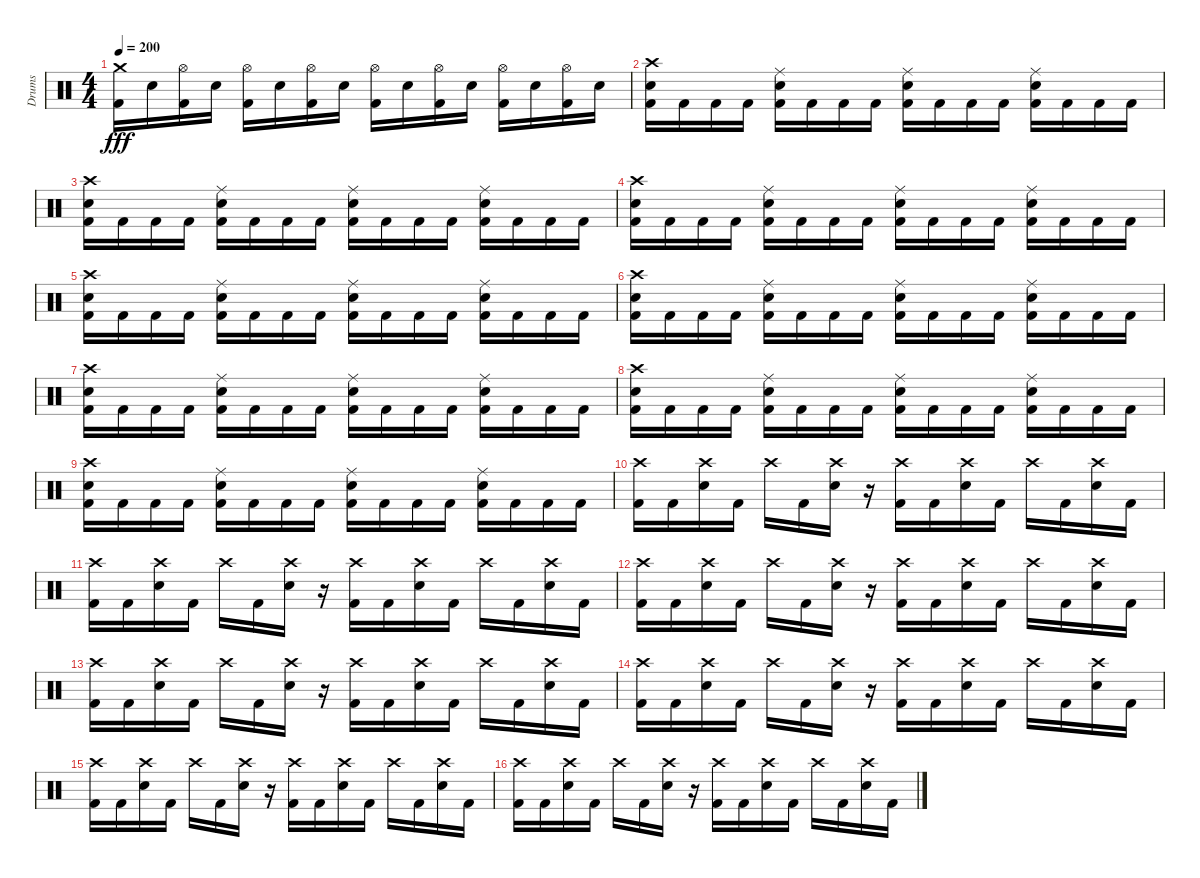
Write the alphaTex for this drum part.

\track ("Drums" "Drums") {instrument percussion}
\staff {score}
\articulation defaults
\ts (4 4)
\tempo 200
\clef neutral
\ks c
("Crash medium (hit)" "Kick (hit) 2").16{dy fff} "Electric Snare (hit)".16 ("Hi-Hat (open)" "Kick (hit) 2").16 "Electric Snare (hit)".16 ("Hi-Hat (open)" "Kick (hit) 2").16 "Electric Snare (hit)".16 ("Hi-Hat (open)" "Kick (hit) 2").16 "Electric Snare (hit)".16 ("Hi-Hat (open)" "Kick (hit) 2").16 "Electric Snare (hit)".16 ("Hi-Hat (open)" "Kick (hit) 2").16 "Electric Snare (hit)".16 ("Hi-Hat (open)" "Kick (hit) 2").16 "Electric Snare (hit)".16 ("Hi-Hat (open)" "Kick (hit) 2").16 "Electric Snare (hit)".16 |
("Crash high (hit)" "Electric Snare (hit)" "Kick (hit) 2").16 "Kick (hit) 2".16 "Kick (hit) 2".16 "Kick (hit) 2".16 ("Ride (middle)" "Electric Snare (hit)" "Kick (hit) 2").16 "Kick (hit) 2".16 "Kick (hit) 2".16 "Kick (hit) 2".16 ("Ride (middle)" "Electric Snare (hit)" "Kick (hit) 2").16 "Kick (hit) 2".16 "Kick (hit) 2".16 "Kick (hit) 2".16 ("Ride (middle)" "Electric Snare (hit)" "Kick (hit) 2").16 "Kick (hit) 2".16 "Kick (hit) 2".16 "Kick (hit) 2".16 |
("Crash high (hit)" "Electric Snare (hit)" "Kick (hit) 2").16 "Kick (hit) 2".16 "Kick (hit) 2".16 "Kick (hit) 2".16 ("Ride (middle)" "Electric Snare (hit)" "Kick (hit) 2").16 "Kick (hit) 2".16 "Kick (hit) 2".16 "Kick (hit) 2".16 ("Ride (middle)" "Electric Snare (hit)" "Kick (hit) 2").16 "Kick (hit) 2".16 "Kick (hit) 2".16 "Kick (hit) 2".16 ("Ride (middle)" "Electric Snare (hit)" "Kick (hit) 2").16 "Kick (hit) 2".16 "Kick (hit) 2".16 "Kick (hit) 2".16 |
("Crash high (hit)" "Electric Snare (hit)" "Kick (hit) 2").16 "Kick (hit) 2".16 "Kick (hit) 2".16 "Kick (hit) 2".16 ("Ride (middle)" "Electric Snare (hit)" "Kick (hit) 2").16 "Kick (hit) 2".16 "Kick (hit) 2".16 "Kick (hit) 2".16 ("Ride (middle)" "Electric Snare (hit)" "Kick (hit) 2").16 "Kick (hit) 2".16 "Kick (hit) 2".16 "Kick (hit) 2".16 ("Ride (middle)" "Electric Snare (hit)" "Kick (hit) 2").16 "Kick (hit) 2".16 "Kick (hit) 2".16 "Kick (hit) 2".16 |
("Crash high (hit)" "Electric Snare (hit)" "Kick (hit) 2").16 "Kick (hit) 2".16 "Kick (hit) 2".16 "Kick (hit) 2".16 ("Ride (middle)" "Electric Snare (hit)" "Kick (hit) 2").16 "Kick (hit) 2".16 "Kick (hit) 2".16 "Kick (hit) 2".16 ("Ride (middle)" "Electric Snare (hit)" "Kick (hit) 2").16 "Kick (hit) 2".16 "Kick (hit) 2".16 "Kick (hit) 2".16 ("Ride (middle)" "Electric Snare (hit)" "Kick (hit) 2").16 "Kick (hit) 2".16 "Kick (hit) 2".16 "Kick (hit) 2".16 |
("Crash high (hit)" "Electric Snare (hit)" "Kick (hit) 2").16 "Kick (hit) 2".16 "Kick (hit) 2".16 "Kick (hit) 2".16 ("Ride (middle)" "Electric Snare (hit)" "Kick (hit) 2").16 "Kick (hit) 2".16 "Kick (hit) 2".16 "Kick (hit) 2".16 ("Ride (middle)" "Electric Snare (hit)" "Kick (hit) 2").16 "Kick (hit) 2".16 "Kick (hit) 2".16 "Kick (hit) 2".16 ("Ride (middle)" "Electric Snare (hit)" "Kick (hit) 2").16 "Kick (hit) 2".16 "Kick (hit) 2".16 "Kick (hit) 2".16 |
("Crash high (hit)" "Electric Snare (hit)" "Kick (hit) 2").16 "Kick (hit) 2".16 "Kick (hit) 2".16 "Kick (hit) 2".16 ("Ride (middle)" "Electric Snare (hit)" "Kick (hit) 2").16 "Kick (hit) 2".16 "Kick (hit) 2".16 "Kick (hit) 2".16 ("Ride (middle)" "Electric Snare (hit)" "Kick (hit) 2").16 "Kick (hit) 2".16 "Kick (hit) 2".16 "Kick (hit) 2".16 ("Ride (middle)" "Electric Snare (hit)" "Kick (hit) 2").16 "Kick (hit) 2".16 "Kick (hit) 2".16 "Kick (hit) 2".16 |
("Crash high (hit)" "Electric Snare (hit)" "Kick (hit) 2").16 "Kick (hit) 2".16 "Kick (hit) 2".16 "Kick (hit) 2".16 ("Ride (middle)" "Electric Snare (hit)" "Kick (hit) 2").16 "Kick (hit) 2".16 "Kick (hit) 2".16 "Kick (hit) 2".16 ("Ride (middle)" "Electric Snare (hit)" "Kick (hit) 2").16 "Kick (hit) 2".16 "Kick (hit) 2".16 "Kick (hit) 2".16 ("Ride (middle)" "Electric Snare (hit)" "Kick (hit) 2").16 "Kick (hit) 2".16 "Kick (hit) 2".16 "Kick (hit) 2".16 |
("Crash high (hit)" "Electric Snare (hit)" "Kick (hit) 2").16 "Kick (hit) 2".16 "Kick (hit) 2".16 "Kick (hit) 2".16 ("Ride (middle)" "Electric Snare (hit)" "Kick (hit) 2").16 "Kick (hit) 2".16 "Kick (hit) 2".16 "Kick (hit) 2".16 ("Ride (middle)" "Electric Snare (hit)" "Kick (hit) 2").16 "Kick (hit) 2".16 "Kick (hit) 2".16 "Kick (hit) 2".16 ("Ride (middle)" "Electric Snare (hit)" "Kick (hit) 2").16 "Kick (hit) 2".16 "Kick (hit) 2".16 "Kick (hit) 2".16 |
("Crash high (hit)" "Kick (hit) 2").16 "Kick (hit) 2".16 ("Crash high (hit)" "Electric Snare (hit)").16 "Kick (hit) 2".16 "Crash high (hit)".16 "Kick (hit) 2".16 ("Crash high (hit)" "Electric Snare (hit)").16 r.16 ("Crash high (hit)" "Kick (hit) 2").16 "Kick (hit) 2".16 ("Crash high (hit)" "Electric Snare (hit)").16 "Kick (hit) 2".16 "Crash high (hit)".16 "Kick (hit) 2".16 ("Crash high (hit)" "Electric Snare (hit)").16 "Kick (hit) 2".16 |
("Crash high (hit)" "Kick (hit) 2").16 "Kick (hit) 2".16 ("Crash high (hit)" "Electric Snare (hit)").16 "Kick (hit) 2".16 "Crash high (hit)".16 "Kick (hit) 2".16 ("Crash high (hit)" "Electric Snare (hit)").16 r.16 ("Crash high (hit)" "Kick (hit) 2").16 "Kick (hit) 2".16 ("Crash high (hit)" "Electric Snare (hit)").16 "Kick (hit) 2".16 "Crash high (hit)".16 "Kick (hit) 2".16 ("Crash high (hit)" "Electric Snare (hit)").16 "Kick (hit) 2".16 |
("Crash high (hit)" "Kick (hit) 2").16 "Kick (hit) 2".16 ("Crash high (hit)" "Electric Snare (hit)").16 "Kick (hit) 2".16 "Crash high (hit)".16 "Kick (hit) 2".16 ("Crash high (hit)" "Electric Snare (hit)").16 r.16 ("Crash high (hit)" "Kick (hit) 2").16 "Kick (hit) 2".16 ("Crash high (hit)" "Electric Snare (hit)").16 "Kick (hit) 2".16 "Crash high (hit)".16 "Kick (hit) 2".16 ("Crash high (hit)" "Electric Snare (hit)").16 "Kick (hit) 2".16 |
("Crash high (hit)" "Kick (hit) 2").16 "Kick (hit) 2".16 ("Crash high (hit)" "Electric Snare (hit)").16 "Kick (hit) 2".16 "Crash high (hit)".16 "Kick (hit) 2".16 ("Crash high (hit)" "Electric Snare (hit)").16 r.16 ("Crash high (hit)" "Kick (hit) 2").16 "Kick (hit) 2".16 ("Crash high (hit)" "Electric Snare (hit)").16 "Kick (hit) 2".16 "Crash high (hit)".16 "Kick (hit) 2".16 ("Crash high (hit)" "Electric Snare (hit)").16 "Kick (hit) 2".16 |
("Crash high (hit)" "Kick (hit) 2").16 "Kick (hit) 2".16 ("Crash high (hit)" "Electric Snare (hit)").16 "Kick (hit) 2".16 "Crash high (hit)".16 "Kick (hit) 2".16 ("Crash high (hit)" "Electric Snare (hit)").16 r.16 ("Crash high (hit)" "Kick (hit) 2").16 "Kick (hit) 2".16 ("Crash high (hit)" "Electric Snare (hit)").16 "Kick (hit) 2".16 "Crash high (hit)".16 "Kick (hit) 2".16 ("Crash high (hit)" "Electric Snare (hit)").16 "Kick (hit) 2".16 |
("Crash high (hit)" "Kick (hit) 2").16 "Kick (hit) 2".16 ("Crash high (hit)" "Electric Snare (hit)").16 "Kick (hit) 2".16 "Crash high (hit)".16 "Kick (hit) 2".16 ("Crash high (hit)" "Electric Snare (hit)").16 r.16 ("Crash high (hit)" "Kick (hit) 2").16 "Kick (hit) 2".16 ("Crash high (hit)" "Electric Snare (hit)").16 "Kick (hit) 2".16 "Crash high (hit)".16 "Kick (hit) 2".16 ("Crash high (hit)" "Electric Snare (hit)").16 "Kick (hit) 2".16 |
("Crash high (hit)" "Kick (hit) 2").16 "Kick (hit) 2".16 ("Crash high (hit)" "Electric Snare (hit)").16 "Kick (hit) 2".16 "Crash high (hit)".16 "Kick (hit) 2".16 ("Crash high (hit)" "Electric Snare (hit)").16 r.16 ("Crash high (hit)" "Kick (hit) 2").16 "Kick (hit) 2".16 ("Crash high (hit)" "Electric Snare (hit)").16 "Kick (hit) 2".16 "Crash high (hit)".16 "Kick (hit) 2".16 ("Crash high (hit)" "Electric Snare (hit)").16 "Kick (hit) 2".16
